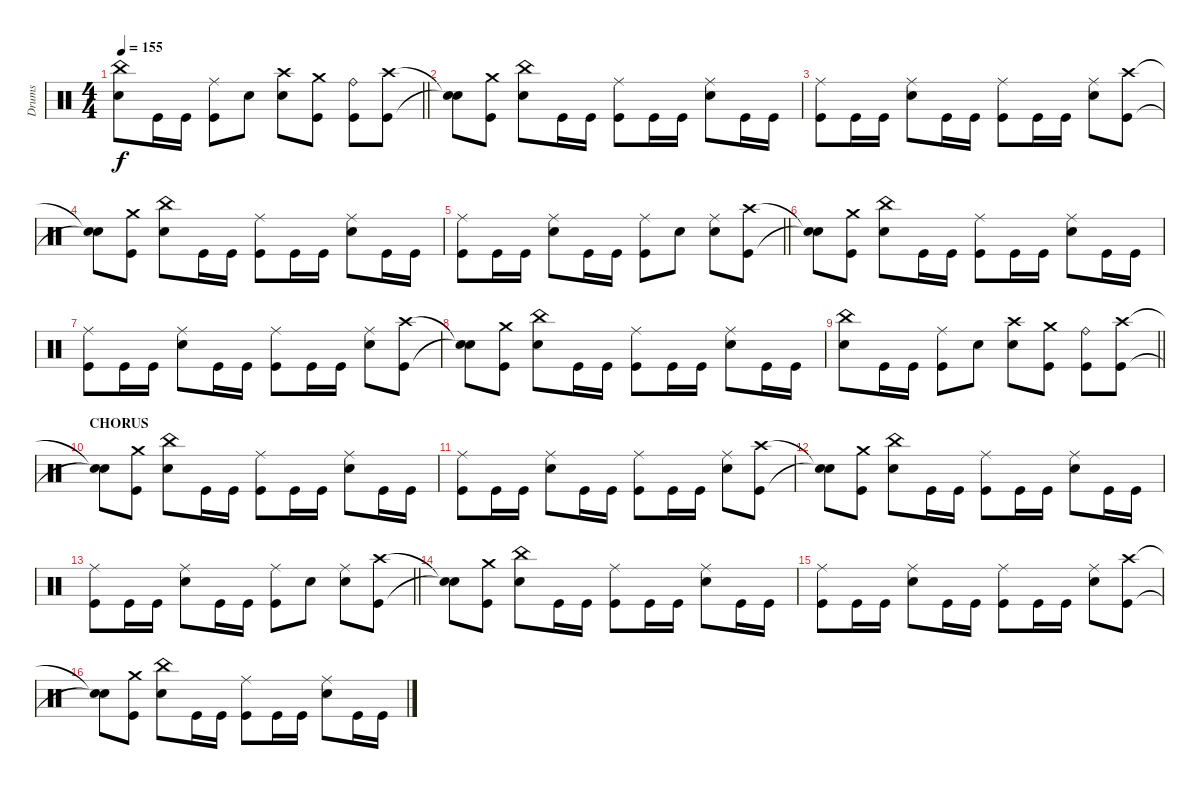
\track ("Drums" "Drums") {instrument percussion}
\staff
\articulation defaults
\ts (4 4)
\tempo 155
\clef neutral
\barLineRight lightlight
\ks c
("China (hit)" "Electric Snare (hit)").8{dy f} "Kick (hit)".16 "Kick (hit)".16 ("Ride (middle)" "Kick (hit)").8 "Electric Snare (hit)".8 ("Crash high (hit)" "Electric Snare (hit)").8 ("Crash medium (hit)" "Kick (hit)").8 ("Ride (bell)" "Kick (hit)").8 ("Crash high (hit)" "Kick (hit)").8 |
("Snare (hit)"{t} "Snare (hit)"{t}).8 ("Crash medium (hit)" "Kick (hit)").8 ("China (hit)" "Electric Snare (hit)").8 "Kick (hit)".16 "Kick (hit)".16 ("Ride (middle)" "Kick (hit)").8 "Kick (hit)".16 "Kick (hit)".16 ("Ride (middle)" "Electric Snare (hit)").8 "Kick (hit)".16 "Kick (hit)".16 |
("Ride (middle)" "Kick (hit)").8 "Kick (hit)".16 "Kick (hit)".16 ("Ride (middle)" "Electric Snare (hit)").8 "Kick (hit)".16 "Kick (hit)".16 ("Ride (middle)" "Kick (hit)").8 "Kick (hit)".16 "Kick (hit)".16 ("Ride (middle)" "Electric Snare (hit)").8 ("Crash high (hit)" "Kick (hit)").8 |
("Snare (hit)"{t} "Snare (hit)"{t}).8 ("Crash medium (hit)" "Kick (hit)").8 ("China (hit)" "Electric Snare (hit)").8 "Kick (hit)".16 "Kick (hit)".16 ("Ride (middle)" "Kick (hit)").8 "Kick (hit)".16 "Kick (hit)".16 ("Ride (middle)" "Electric Snare (hit)").8 "Kick (hit)".16 "Kick (hit)".16 |
\barLineRight lightlight
("Ride (middle)" "Kick (hit)").8 "Kick (hit)".16 "Kick (hit)".16 ("Ride (middle)" "Electric Snare (hit)").8 "Kick (hit)".16 "Kick (hit)".16 ("Ride (middle)" "Kick (hit)").8 "Electric Snare (hit)".8 ("Ride (middle)" "Electric Snare (hit)").8 ("Crash high (hit)" "Kick (hit)").8 |
("Snare (hit)"{t} "Snare (hit)"{t}).8 ("Crash medium (hit)" "Kick (hit)").8 ("China (hit)" "Electric Snare (hit)").8 "Kick (hit)".16 "Kick (hit)".16 ("Ride (middle)" "Kick (hit)").8 "Kick (hit)".16 "Kick (hit)".16 ("Ride (middle)" "Electric Snare (hit)").8 "Kick (hit)".16 "Kick (hit)".16 |
("Ride (middle)" "Kick (hit)").8 "Kick (hit)".16 "Kick (hit)".16 ("Ride (middle)" "Electric Snare (hit)").8 "Kick (hit)".16 "Kick (hit)".16 ("Ride (middle)" "Kick (hit)").8 "Kick (hit)".16 "Kick (hit)".16 ("Ride (middle)" "Electric Snare (hit)").8 ("Crash high (hit)" "Kick (hit)").8 |
("Snare (hit)"{t} "Snare (hit)"{t}).8 ("Crash medium (hit)" "Kick (hit)").8 ("China (hit)" "Electric Snare (hit)").8 "Kick (hit)".16 "Kick (hit)".16 ("Ride (middle)" "Kick (hit)").8 "Kick (hit)".16 "Kick (hit)".16 ("Ride (middle)" "Electric Snare (hit)").8 "Kick (hit)".16 "Kick (hit)".16 |
\barLineRight lightlight
("China (hit)" "Electric Snare (hit)").8 "Kick (hit)".16 "Kick (hit)".16 ("Ride (middle)" "Kick (hit)").8 "Electric Snare (hit)".8 ("Crash high (hit)" "Electric Snare (hit)").8 ("Crash medium (hit)" "Kick (hit)").8 ("Ride (bell)" "Kick (hit)").8 ("Crash high (hit)" "Kick (hit)").8 |
\section ("" "CHORUS")
("Snare (hit)"{t} "Snare (hit)"{t}).8 ("Crash medium (hit)" "Kick (hit)").8 ("China (hit)" "Electric Snare (hit)").8 "Kick (hit)".16 "Kick (hit)".16 ("Ride (middle)" "Kick (hit)").8 "Kick (hit)".16 "Kick (hit)".16 ("Ride (middle)" "Electric Snare (hit)").8 "Kick (hit)".16 "Kick (hit)".16 |
("Ride (middle)" "Kick (hit)").8 "Kick (hit)".16 "Kick (hit)".16 ("Ride (middle)" "Electric Snare (hit)").8 "Kick (hit)".16 "Kick (hit)".16 ("Ride (middle)" "Kick (hit)").8 "Kick (hit)".16 "Kick (hit)".16 ("Ride (middle)" "Electric Snare (hit)").8 ("Crash high (hit)" "Kick (hit)").8 |
("Snare (hit)"{t} "Snare (hit)"{t}).8 ("Crash medium (hit)" "Kick (hit)").8 ("China (hit)" "Electric Snare (hit)").8 "Kick (hit)".16 "Kick (hit)".16 ("Ride (middle)" "Kick (hit)").8 "Kick (hit)".16 "Kick (hit)".16 ("Ride (middle)" "Electric Snare (hit)").8 "Kick (hit)".16 "Kick (hit)".16 |
\barLineRight lightlight
("Ride (middle)" "Kick (hit)").8 "Kick (hit)".16 "Kick (hit)".16 ("Ride (middle)" "Electric Snare (hit)").8 "Kick (hit)".16 "Kick (hit)".16 ("Ride (middle)" "Kick (hit)").8 "Electric Snare (hit)".8 ("Ride (middle)" "Electric Snare (hit)").8 ("Crash high (hit)" "Kick (hit)").8 |
("Snare (hit)"{t} "Snare (hit)"{t}).8 ("Crash medium (hit)" "Kick (hit)").8 ("China (hit)" "Electric Snare (hit)").8 "Kick (hit)".16 "Kick (hit)".16 ("Ride (middle)" "Kick (hit)").8 "Kick (hit)".16 "Kick (hit)".16 ("Ride (middle)" "Electric Snare (hit)").8 "Kick (hit)".16 "Kick (hit)".16 |
("Ride (middle)" "Kick (hit)").8 "Kick (hit)".16 "Kick (hit)".16 ("Ride (middle)" "Electric Snare (hit)").8 "Kick (hit)".16 "Kick (hit)".16 ("Ride (middle)" "Kick (hit)").8 "Kick (hit)".16 "Kick (hit)".16 ("Ride (middle)" "Electric Snare (hit)").8 ("Crash high (hit)" "Kick (hit)").8 |
("Snare (hit)"{t} "Snare (hit)"{t}).8 ("Crash medium (hit)" "Kick (hit)").8 ("China (hit)" "Electric Snare (hit)").8 "Kick (hit)".16 "Kick (hit)".16 ("Ride (middle)" "Kick (hit)").8 "Kick (hit)".16 "Kick (hit)".16 ("Ride (middle)" "Electric Snare (hit)").8 "Kick (hit)".16 "Kick (hit)".16
